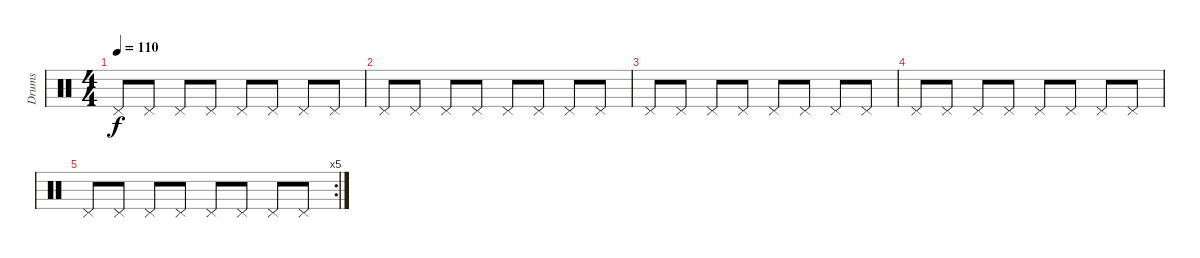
\track ("Drums" "Drums") {instrument percussion}
\staff {score}
\articulation defaults
\ts (4 4)
\tempo 110
\clef neutral
\ks c "Pedal Hi-Hat (hit)".8{dy f} "Pedal Hi-Hat (hit)".8 "Pedal Hi-Hat (hit)".8 "Pedal Hi-Hat (hit)".8 "Pedal Hi-Hat (hit)".8 "Pedal Hi-Hat (hit)".8 "Pedal Hi-Hat (hit)".8 "Pedal Hi-Hat (hit)".8
|
"Pedal Hi-Hat (hit)".8 "Pedal Hi-Hat (hit)".8 "Pedal Hi-Hat (hit)".8 "Pedal Hi-Hat (hit)".8 "Pedal Hi-Hat (hit)".8 "Pedal Hi-Hat (hit)".8 "Pedal Hi-Hat (hit)".8 "Pedal Hi-Hat (hit)".8 |
"Pedal Hi-Hat (hit)".8 "Pedal Hi-Hat (hit)".8 "Pedal Hi-Hat (hit)".8 "Pedal Hi-Hat (hit)".8 "Pedal Hi-Hat (hit)".8 "Pedal Hi-Hat (hit)".8 "Pedal Hi-Hat (hit)".8 "Pedal Hi-Hat (hit)".8 |
"Pedal Hi-Hat (hit)".8 "Pedal Hi-Hat (hit)".8 "Pedal Hi-Hat (hit)".8 "Pedal Hi-Hat (hit)".8 "Pedal Hi-Hat (hit)".8 "Pedal Hi-Hat (hit)".8 "Pedal Hi-Hat (hit)".8 "Pedal Hi-Hat (hit)".8 |
\rc 5 "Pedal Hi-Hat (hit)".8 "Pedal Hi-Hat (hit)".8 "Pedal Hi-Hat (hit)".8 "Pedal Hi-Hat (hit)".8 "Pedal Hi-Hat (hit)".8 "Pedal Hi-Hat (hit)".8 "Pedal Hi-Hat (hit)".8 "Pedal Hi-Hat (hit)".8
